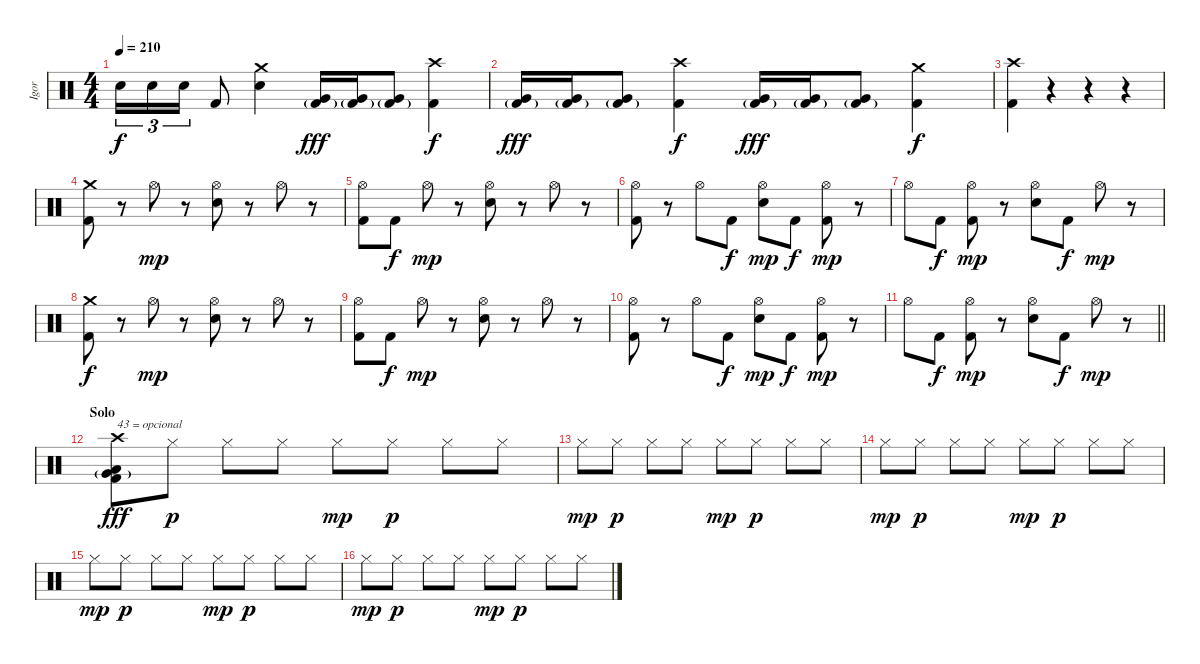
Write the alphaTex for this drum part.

\track ("Igor" "Igor") {instrument percussion}
\staff {score}
\articulation defaults
\ts (4 4)
\tempo 210
\clef neutral
\ks c "Electric Snare (hit)".16{tu (3 2) dy f} "Electric Snare (hit)".16{tu (3 2)} "Electric Snare (hit)".16{tu (3 2)} "Kick (hit) 2".8
("Crash medium (hit)" "Electric Snare (hit)").4 ("Very Low Tom (hit)" "Kick (hit) 2"{g}).16{dy fff} ("Very Low Tom (hit)" "Kick (hit) 2"{g}).16 ("Very Low Tom (hit)" "Kick (hit) 2"{g}).8 ("Crash high (hit)" "Kick (hit) 2").4{dy f} |
("Very Low Tom (hit)" "Kick (hit) 2"{g}).16{dy fff} ("Very Low Tom (hit)" "Kick (hit) 2"{g}).16 ("Very Low Tom (hit)" "Kick (hit) 2"{g}).8 ("Crash high (hit)" "Kick (hit) 2").4{dy f} ("Very Low Tom (hit)" "Kick (hit) 2"{g}).16{dy fff} ("Very Low Tom (hit)" "Kick (hit) 2"{g}).16 ("Very Low Tom (hit)" "Kick (hit) 2"{g}).8 ("Crash medium (hit)" "Kick (hit) 2").4{dy f} |
("Crash high (hit)" "Kick (hit) 2").4 r.4 r.4 r.4 |
("Crash medium (hit)" "Kick (hit) 2").8 r.8 "Hi-Hat (open)".8{dy mp} r.8 ("Hi-Hat (open)" "Electric Snare (hit)").8 r.8 "Hi-Hat (open)".8 r.8 |
("Hi-Hat (open)" "Kick (hit) 2").8 "Kick (hit) 2".8{dy f} "Hi-Hat (open)".8{dy mp} r.8 ("Hi-Hat (open)" "Electric Snare (hit)").8 r.8 "Hi-Hat (open)".8 r.8 |
("Hi-Hat (open)" "Kick (hit) 2").8 r.8 "Hi-Hat (open)".8 "Kick (hit) 2".8{dy f} ("Hi-Hat (open)" "Electric Snare (hit)").8{dy mp} "Kick (hit) 2".8{dy f} ("Hi-Hat (open)" "Kick (hit) 2").8{dy mp} r.8 |
"Hi-Hat (open)".8 "Kick (hit) 2".8{dy f} ("Hi-Hat (open)" "Kick (hit) 2").8{dy mp} r.8 ("Hi-Hat (open)" "Electric Snare (hit)").8 "Kick (hit) 2".8{dy f} "Hi-Hat (open)".8{dy mp} r.8 |
("Crash medium (hit)" "Kick (hit) 2").8{dy f} r.8 "Hi-Hat (open)".8{dy mp} r.8 ("Hi-Hat (open)" "Electric Snare (hit)").8 r.8 "Hi-Hat (open)".8 r.8 |
("Hi-Hat (open)" "Kick (hit) 2").8 "Kick (hit) 2".8{dy f} "Hi-Hat (open)".8{dy mp} r.8 ("Hi-Hat (open)" "Electric Snare (hit)").8 r.8 "Hi-Hat (open)".8 r.8 |
("Hi-Hat (open)" "Kick (hit) 2").8 r.8 "Hi-Hat (open)".8 "Kick (hit) 2".8{dy f} ("Hi-Hat (open)" "Electric Snare (hit)").8{dy mp} "Kick (hit) 2".8{dy f} ("Hi-Hat (open)" "Kick (hit) 2").8{dy mp} r.8 |
\barLineRight lightlight "Hi-Hat (open)".8 "Kick (hit) 2".8{dy f}
("Hi-Hat (open)" "Kick (hit) 2").8{dy mp} r.8 ("Hi-Hat (open)" "Electric Snare (hit)").8 "Kick (hit) 2".8{dy f} "Hi-Hat (open)".8{dy mp} r.8 |
\section ("" "Solo")
("Crash high (hit)" "Very Low Tom (hit)"{g} "Low Floor Tom (hit)" "Kick (hit) 2").8{bd 60 txt "43 = opcional" dy fff} "Hi-Hat (closed)".8{dy p} "Hi-Hat (closed)".8 "Hi-Hat (closed)".8 "Hi-Hat (closed)".8{dy mp} "Hi-Hat (closed)".8{dy p} "Hi-Hat (closed)".8 "Hi-Hat (closed)".8 |
"Hi-Hat (closed)".8{dy mp} "Hi-Hat (closed)".8{dy p} "Hi-Hat (closed)".8 "Hi-Hat (closed)".8 "Hi-Hat (closed)".8{dy mp} "Hi-Hat (closed)".8{dy p} "Hi-Hat (closed)".8 "Hi-Hat (closed)".8 |
"Hi-Hat (closed)".8{dy mp} "Hi-Hat (closed)".8{dy p} "Hi-Hat (closed)".8 "Hi-Hat (closed)".8 "Hi-Hat (closed)".8{dy mp} "Hi-Hat (closed)".8{dy p} "Hi-Hat (closed)".8 "Hi-Hat (closed)".8 |
"Hi-Hat (closed)".8{dy mp} "Hi-Hat (closed)".8{dy p} "Hi-Hat (closed)".8 "Hi-Hat (closed)".8 "Hi-Hat (closed)".8{dy mp} "Hi-Hat (closed)".8{dy p} "Hi-Hat (closed)".8 "Hi-Hat (closed)".8 |
"Hi-Hat (closed)".8{dy mp} "Hi-Hat (closed)".8{dy p} "Hi-Hat (closed)".8 "Hi-Hat (closed)".8 "Hi-Hat (closed)".8{dy mp} "Hi-Hat (closed)".8{dy p} "Hi-Hat (closed)".8 "Hi-Hat (closed)".8
